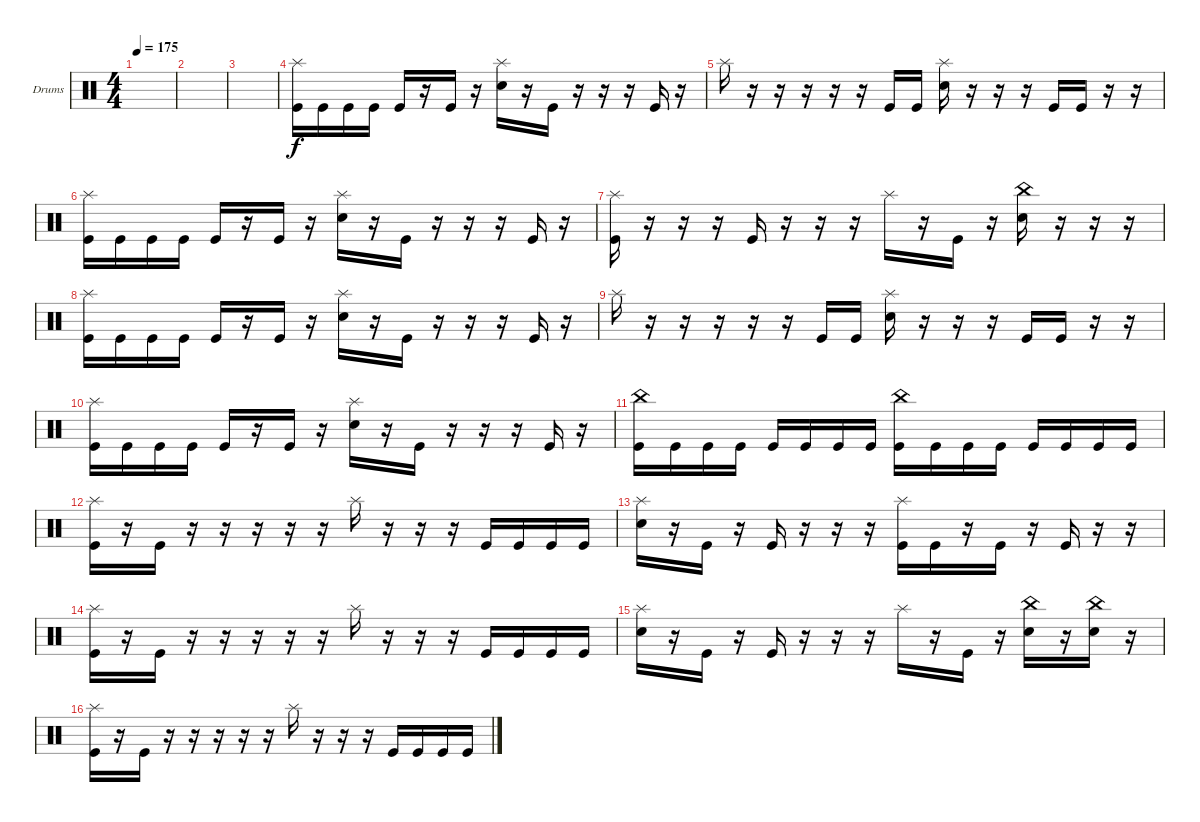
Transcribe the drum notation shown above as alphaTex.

\bracketExtendMode groupsimilarinstruments
\firstSystemTrackNameOrientation horizontal
\otherSystemsTrackNameOrientation horizontal
\track ("Drumkit" "Drums") {solo instrument percussion}
\staff {score}
\articulation defaults
\ts (4 4)
\tempo 175
\clef neutral
\ks c
|
|
|
("Splash (hit)" "Kick (hit)").16 "Kick (hit)".16 "Kick (hit)".16 "Kick (hit)".16 "Kick (hit)".16 r.16 "Kick (hit)".16 r.16 ("Splash (hit)" "Snare (hit) 2").16 r.16 "Kick (hit)".16 r.16 r.16 r.16 "Kick (hit)".16 r.16 |
"Splash (hit)".16 r.16 r.16 r.16 r.16 r.16 "Kick (hit)".16 "Kick (hit)".16 ("Splash (hit)" "Snare (hit) 2").16 r.16 r.16 r.16 "Kick (hit)".16 "Kick (hit)".16 r.16 r.16 |
("Splash (hit)" "Kick (hit)").16 "Kick (hit)".16 "Kick (hit)".16 "Kick (hit)".16 "Kick (hit)".16 r.16 "Kick (hit)".16 r.16 ("Splash (hit)" "Snare (hit) 2").16 r.16 "Kick (hit)".16 r.16 r.16 r.16 "Kick (hit)".16 r.16 |
("Splash (hit)" "Kick (hit)").16 r.16 r.16 r.16 "Kick (hit)".16 r.16 r.16 r.16 "Splash (hit)".16 r.16 "Kick (hit)".16 r.16 ("China (hit)" "Snare (hit) 2").16 r.16 r.16 r.16 |
("Splash (hit)" "Kick (hit)").16 "Kick (hit)".16 "Kick (hit)".16 "Kick (hit)".16 "Kick (hit)".16 r.16 "Kick (hit)".16 r.16 ("Splash (hit)" "Snare (hit) 2").16 r.16 "Kick (hit)".16 r.16 r.16 r.16 "Kick (hit)".16 r.16 |
"Splash (hit)".16 r.16 r.16 r.16 r.16 r.16 "Kick (hit)".16 "Kick (hit)".16 ("Splash (hit)" "Snare (hit) 2").16 r.16 r.16 r.16 "Kick (hit)".16 "Kick (hit)".16 r.16 r.16 |
("Splash (hit)" "Kick (hit)").16 "Kick (hit)".16 "Kick (hit)".16 "Kick (hit)".16 "Kick (hit)".16 r.16 "Kick (hit)".16 r.16 ("Splash (hit)" "Snare (hit) 2").16 r.16 "Kick (hit)".16 r.16 r.16 r.16 "Kick (hit)".16 r.16 |
("China (hit)" "Kick (hit)").16 "Kick (hit)".16 "Kick (hit)".16 "Kick (hit)".16 "Kick (hit)".16 "Kick (hit)".16 "Kick (hit)".16 "Kick (hit)".16 ("China (hit)" "Kick (hit)").16 "Kick (hit)".16 "Kick (hit)".16 "Kick (hit)".16 "Kick (hit)".16 "Kick (hit)".16 "Kick (hit)".16 "Kick (hit)".16 |
("Kick (hit)" "Splash (hit)").16 r.16 "Kick (hit)".16 r.16 r.16 r.16 r.16 r.16 "Splash (hit)".16 r.16 r.16 r.16 "Kick (hit)".16 "Kick (hit)".16 "Kick (hit)".16 "Kick (hit)".16 |
("Splash (hit)" "Snare (hit) 2").16 r.16 "Kick (hit)".16 r.16 "Kick (hit)".16 r.16 r.16 r.16 ("Splash (hit)" "Kick (hit)").16 "Kick (hit)".16 r.16 "Kick (hit)".16 r.16 "Kick (hit)".16 r.16 r.16 |
("Kick (hit)" "Splash (hit)").16 r.16 "Kick (hit)".16 r.16 r.16 r.16 r.16 r.16 "Splash (hit)".16 r.16 r.16 r.16 "Kick (hit)".16 "Kick (hit)".16 "Kick (hit)".16 "Kick (hit)".16 |
("Splash (hit)" "Snare (hit) 2").16 r.16 "Kick (hit)".16 r.16 "Kick (hit)".16 r.16 r.16 r.16 "Splash (hit)".16 r.16 "Kick (hit)".16 r.16 ("Snare (hit) 2" "China (hit)").16 r.16 ("Snare (hit) 2" "China (hit)").16 r.16 |
("Kick (hit)" "Splash (hit)").16 r.16 "Kick (hit)".16 r.16 r.16 r.16 r.16 r.16 "Splash (hit)".16 r.16 r.16 r.16 "Kick (hit)".16 "Kick (hit)".16 "Kick (hit)".16 "Kick (hit)".16
